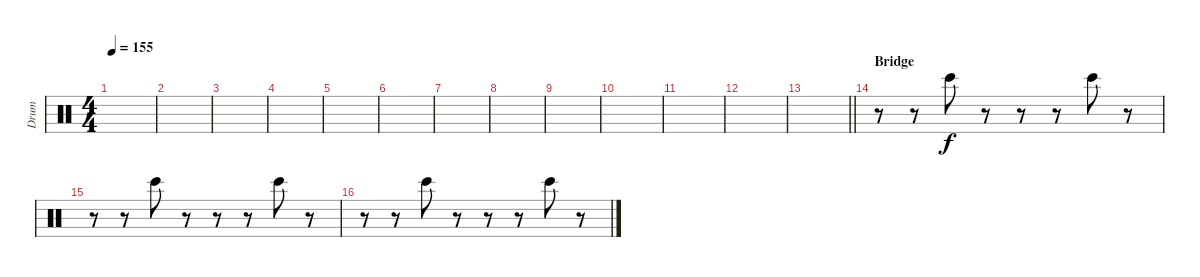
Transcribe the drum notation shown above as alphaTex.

\track ("Drum" "Drum") {instrument percussion}
\staff {score}
\articulation defaults
\ts (4 4)
\tempo 155
\clef neutral
\ks c
|
|
|
|
|
|
|
|
|
|
|
|
\barLineRight lightlight
|
\section ("" "Bridge")
r.8 r.8 "Bongo High (hit)".8 r.8 r.8 r.8 "Bongo High (hit)".8 r.8 |
r.8 r.8 "Bongo High (hit)".8 r.8 r.8 r.8 "Bongo High (hit)".8 r.8 |
r.8 r.8 "Bongo High (hit)".8 r.8 r.8 r.8 "Bongo High (hit)".8 r.8
